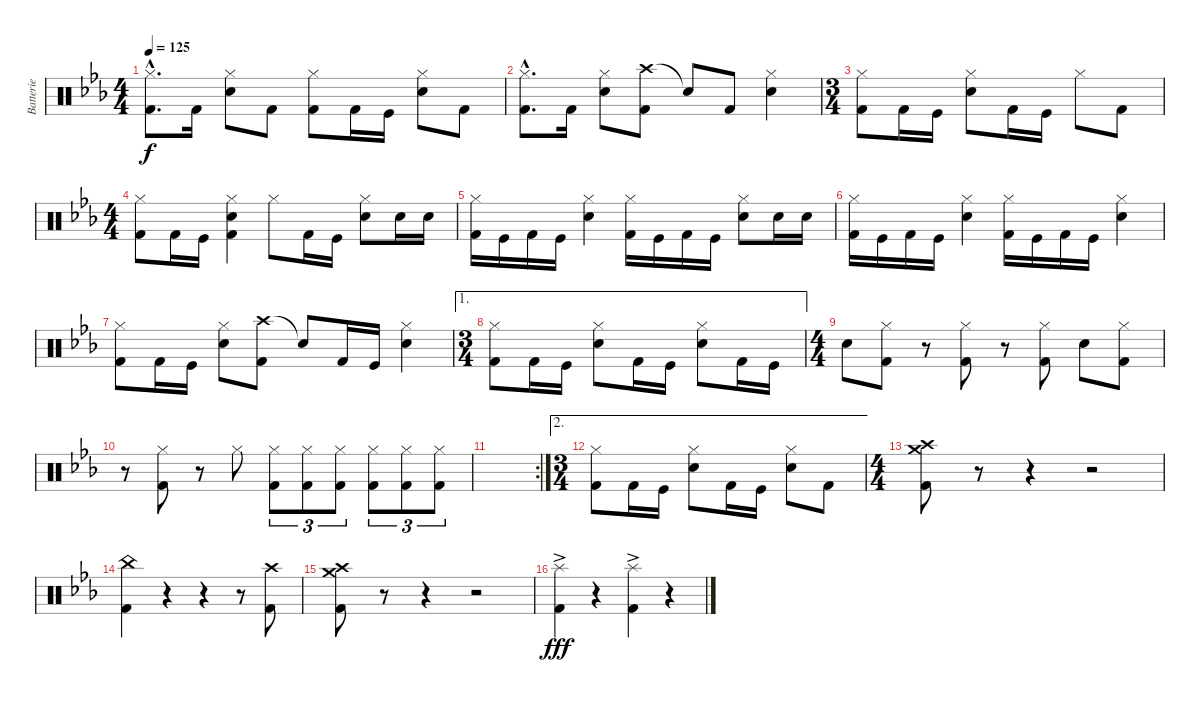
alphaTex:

\track ("Batterie" "Batterie") {instrument percussion}
\staff {score}
\articulation defaults
\ts (4 4)
\tempo 125
\clef neutral
\ks eb
("Hi-Hat (closed)"{hac} "Kick (hit) 2"{hac}).8{d dy f} "Kick (hit) 2".16 ("Hi-Hat (closed)" "Electric Snare (hit)").8 "Kick (hit) 2".8 ("Hi-Hat (closed)" "Kick (hit) 2").8 "Kick (hit) 2".16 "Kick (hit)".16 ("Hi-Hat (closed)" "Electric Snare (hit)").8 "Kick (hit) 2".8 |
("Hi-Hat (closed)"{hac} "Kick (hit) 2"{hac}).8{d} "Kick (hit) 2".16 ("Hi-Hat (closed)" "Electric Snare (hit)").8 ("Crash high (hit)" "Kick (hit) 2").8 "Snare (hit)"{t}.8 "Kick (hit) 2".8 ("Hi-Hat (closed)" "Electric Snare (hit)").4 |
\ts (3 4)
("Hi-Hat (closed)" "Kick (hit) 2").8 "Kick (hit) 2".16 "Kick (hit)".16 ("Hi-Hat (closed)" "Electric Snare (hit)").8 "Kick (hit) 2".16 "Kick (hit)".16 "Hi-Hat (closed)".8 "Kick (hit) 2".8 |
\ts (4 4)
("Hi-Hat (closed)" "Kick (hit) 2").8 "Kick (hit) 2".16 "Kick (hit)".16 ("Hi-Hat (closed)" "Electric Snare (hit)" "Kick (hit) 2").4 "Hi-Hat (closed)".8 "Kick (hit) 2".16 "Kick (hit)".16 ("Hi-Hat (closed)" "Electric Snare (hit)").8 "Electric Snare (hit)".16 "Electric Snare (hit)".16 |
("Hi-Hat (closed)" "Kick (hit) 2").16 "Kick (hit)".16 "Kick (hit) 2".16 "Kick (hit)".16 ("Hi-Hat (closed)" "Electric Snare (hit)").4 ("Hi-Hat (closed)" "Kick (hit) 2").16 "Kick (hit)".16 "Kick (hit) 2".16 "Kick (hit)".16 ("Hi-Hat (closed)" "Electric Snare (hit)").8 "Electric Snare (hit)".16 "Electric Snare (hit)".16 |
("Hi-Hat (closed)" "Kick (hit) 2").16 "Kick (hit)".16 "Kick (hit) 2".16 "Kick (hit)".16 ("Hi-Hat (closed)" "Electric Snare (hit)").4 ("Hi-Hat (closed)" "Kick (hit) 2").16 "Kick (hit)".16 "Kick (hit) 2".16 "Kick (hit)".16 ("Hi-Hat (closed)" "Electric Snare (hit)").4 |
("Hi-Hat (closed)" "Kick (hit) 2").8 "Kick (hit) 2".16 "Kick (hit)".16 ("Hi-Hat (closed)" "Electric Snare (hit)").8 ("Crash high (hit)" "Kick (hit) 2").8 "Snare (hit)"{t}.8 "Kick (hit) 2".16 "Kick (hit)".16 ("Hi-Hat (closed)" "Electric Snare (hit)").4 |
\ae 1
\ts (3 4)
("Hi-Hat (closed)" "Kick (hit) 2").8 "Kick (hit) 2".16 "Kick (hit)".16 ("Hi-Hat (closed)" "Electric Snare (hit)").8 "Kick (hit) 2".16 "Kick (hit)".16 ("Hi-Hat (closed)" "Electric Snare (hit)").8 "Kick (hit) 2".16 "Kick (hit)".16 |
\ts (4 4)
"Electric Snare (hit)".8 ("Hi-Hat (closed)" "Kick (hit) 2").8 r.8 ("Hi-Hat (closed)" "Kick (hit) 2").8 r.8 ("Hi-Hat (closed)" "Kick (hit) 2").8 "Electric Snare (hit)".8 ("Hi-Hat (closed)" "Kick (hit) 2").8 |
r.8 ("Hi-Hat (closed)" "Kick (hit) 2").8 r.8 "Hi-Hat (closed)".8 ("Hi-Hat (closed)" "Kick (hit) 2").8{tu (3 2)} ("Hi-Hat (closed)" "Kick (hit) 2").8{tu (3 2)} ("Hi-Hat (closed)" "Kick (hit) 2").8{tu (3 2)} ("Hi-Hat (closed)" "Kick (hit) 2").8{tu (3 2)} ("Hi-Hat (closed)" "Kick (hit) 2").8{tu (3 2)} ("Hi-Hat (closed)" "Kick (hit) 2").8{tu (3 2)} |
\rc 2
|
\ae 2
\ts (3 4)
("Hi-Hat (closed)" "Kick (hit) 2").8 "Kick (hit) 2".16 "Kick (hit)".16 ("Hi-Hat (closed)" "Electric Snare (hit)").8 "Kick (hit) 2".16 "Kick (hit)".16 ("Hi-Hat (closed)" "Electric Snare (hit)").8 "Kick (hit) 2".8 |
\ts (4 4)
("Crash high (hit)" "Crash medium (hit)" "Kick (hit) 2").8 r.8 r.4 r.2 |
("China (hit)" "Kick (hit) 2").4 r.4 r.4 r.8 ("Crash high (hit)" "Kick (hit) 2").8 |
("Crash high (hit)" "Crash medium (hit)" "Kick (hit) 2").8 r.8 r.4 r.2 |
("Splash (hit)"{ac} "Kick (hit) 2").4{dy fff} r.4 ("Splash (hit)"{ac} "Kick (hit) 2").4 r.4
